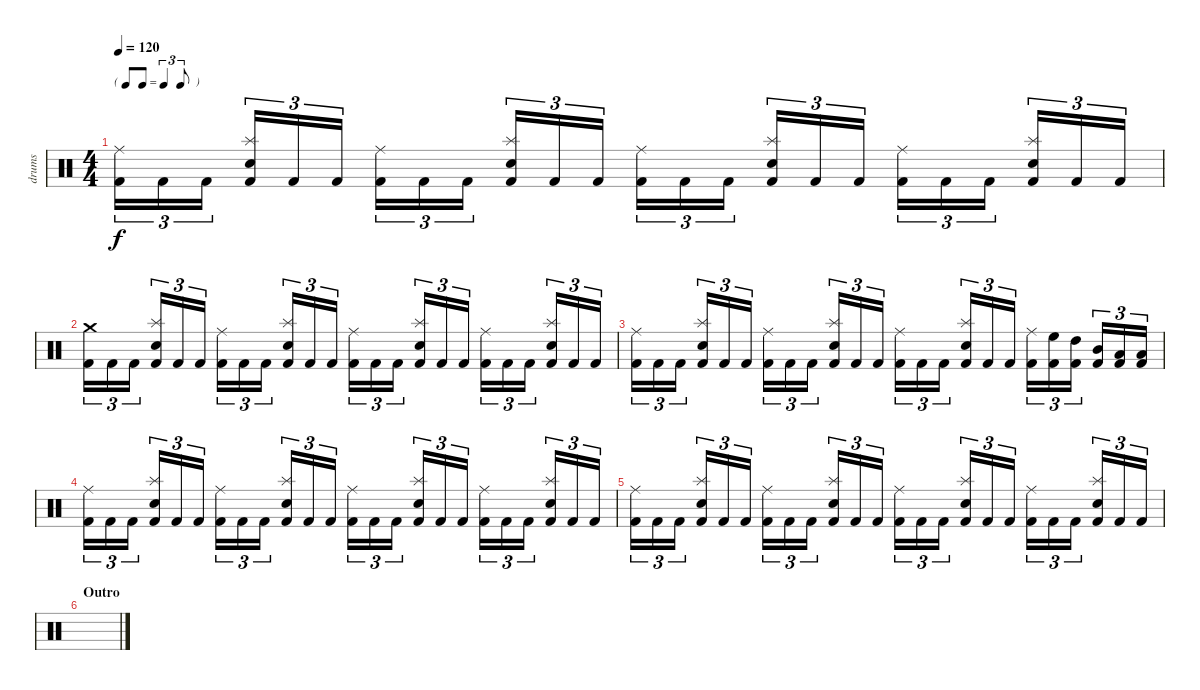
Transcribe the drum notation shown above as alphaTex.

\track ("drums" "drums") {instrument percussion}
\staff {score}
\articulation defaults
\ts (4 4)
\tf triplet8th
\tempo 120
\clef neutral
\ks c
("Ride (middle)" "Kick (hit) 2").16{tu (3 2) dy f} "Kick (hit) 2".16{tu (3 2)} "Kick (hit) 2".16{tu (3 2)} ("Splash (hit)" "Snare (hit) 2" "Kick (hit) 2").16{tu (3 2)} "Kick (hit) 2".16{tu (3 2)} "Kick (hit) 2".16{tu (3 2)} ("Ride (middle)" "Kick (hit) 2").16{tu (3 2)} "Kick (hit) 2".16{tu (3 2)} "Kick (hit) 2".16{tu (3 2)} ("Splash (hit)" "Snare (hit) 2" "Kick (hit) 2").16{tu (3 2)} "Kick (hit) 2".16{tu (3 2)} "Kick (hit) 2".16{tu (3 2)} ("Ride (middle)" "Kick (hit) 2").16{tu (3 2)} "Kick (hit) 2".16{tu (3 2)} "Kick (hit) 2".16{tu (3 2)} ("Splash (hit)" "Snare (hit) 2" "Kick (hit) 2").16{tu (3 2)} "Kick (hit) 2".16{tu (3 2)} "Kick (hit) 2".16{tu (3 2)} ("Ride (middle)" "Kick (hit) 2").16{tu (3 2)} "Kick (hit) 2".16{tu (3 2)} "Kick (hit) 2".16{tu (3 2)} ("Splash (hit)" "Snare (hit) 2" "Kick (hit) 2").16{tu (3 2)} "Kick (hit) 2".16{tu (3 2)} "Kick (hit) 2".16{tu (3 2)} |
("Crash medium (hit)" "Kick (hit) 2").16{tu (3 2)} "Kick (hit) 2".16{tu (3 2)} "Kick (hit) 2".16{tu (3 2)} ("Splash (hit)" "Snare (hit) 2" "Kick (hit) 2").16{tu (3 2)} "Kick (hit) 2".16{tu (3 2)} "Kick (hit) 2".16{tu (3 2)} ("Ride (middle)" "Kick (hit) 2").16{tu (3 2)} "Kick (hit) 2".16{tu (3 2)} "Kick (hit) 2".16{tu (3 2)} ("Splash (hit)" "Snare (hit) 2" "Kick (hit) 2").16{tu (3 2)} "Kick (hit) 2".16{tu (3 2)} "Kick (hit) 2".16{tu (3 2)} ("Ride (middle)" "Kick (hit) 2").16{tu (3 2)} "Kick (hit) 2".16{tu (3 2)} "Kick (hit) 2".16{tu (3 2)} ("Splash (hit)" "Snare (hit) 2" "Kick (hit) 2").16{tu (3 2)} "Kick (hit) 2".16{tu (3 2)} "Kick (hit) 2".16{tu (3 2)} ("Ride (middle)" "Kick (hit) 2").16{tu (3 2)} "Kick (hit) 2".16{tu (3 2)} "Kick (hit) 2".16{tu (3 2)} ("Splash (hit)" "Snare (hit) 2" "Kick (hit) 2").16{tu (3 2)} "Kick (hit) 2".16{tu (3 2)} "Kick (hit) 2".16{tu (3 2)} |
("Ride (middle)" "Kick (hit) 2").16{tu (3 2)} "Kick (hit) 2".16{tu (3 2)} "Kick (hit) 2".16{tu (3 2)} ("Splash (hit)" "Snare (hit) 2" "Kick (hit) 2").16{tu (3 2)} "Kick (hit) 2".16{tu (3 2)} "Kick (hit) 2".16{tu (3 2)} ("Ride (middle)" "Kick (hit) 2").16{tu (3 2)} "Kick (hit) 2".16{tu (3 2)} "Kick (hit) 2".16{tu (3 2)} ("Splash (hit)" "Snare (hit) 2" "Kick (hit) 2").16{tu (3 2)} "Kick (hit) 2".16{tu (3 2)} "Kick (hit) 2".16{tu (3 2)} ("Ride (middle)" "Kick (hit) 2").16{tu (3 2)} "Kick (hit) 2".16{tu (3 2)} "Kick (hit) 2".16{tu (3 2)} ("Splash (hit)" "Snare (hit) 2" "Kick (hit) 2").16{tu (3 2)} "Kick (hit) 2".16{tu (3 2)} "Kick (hit) 2".16{tu (3 2)} ("Ride (middle)" "Kick (hit) 2").16{tu (3 2)} ("High Floor Tom (hit)" "Kick (hit) 2").16{tu (3 2)} ("High Tom (hit)" "Kick (hit) 2").16{tu (3 2)} ("Mid Tom (hit)" "Kick (hit) 2").16{tu (3 2)} ("Low Tom (hit)" "Kick (hit) 2").16{tu (3 2)} ("Low Floor Tom (hit)" "Kick (hit) 2").16{tu (3 2)} |
("Ride (middle)" "Kick (hit) 2").16{tu (3 2)} "Kick (hit) 2".16{tu (3 2)} "Kick (hit) 2".16{tu (3 2)} ("Splash (hit)" "Snare (hit) 2" "Kick (hit) 2").16{tu (3 2)} "Kick (hit) 2".16{tu (3 2)} "Kick (hit) 2".16{tu (3 2)} ("Ride (middle)" "Kick (hit) 2").16{tu (3 2)} "Kick (hit) 2".16{tu (3 2)} "Kick (hit) 2".16{tu (3 2)} ("Splash (hit)" "Snare (hit) 2" "Kick (hit) 2").16{tu (3 2)} "Kick (hit) 2".16{tu (3 2)} "Kick (hit) 2".16{tu (3 2)} ("Ride (middle)" "Kick (hit) 2").16{tu (3 2)} "Kick (hit) 2".16{tu (3 2)} "Kick (hit) 2".16{tu (3 2)} ("Splash (hit)" "Snare (hit) 2" "Kick (hit) 2").16{tu (3 2)} "Kick (hit) 2".16{tu (3 2)} "Kick (hit) 2".16{tu (3 2)} ("Ride (middle)" "Kick (hit) 2").16{tu (3 2)} "Kick (hit) 2".16{tu (3 2)} "Kick (hit) 2".16{tu (3 2)} ("Splash (hit)" "Snare (hit) 2" "Kick (hit) 2").16{tu (3 2)} "Kick (hit) 2".16{tu (3 2)} "Kick (hit) 2".16{tu (3 2)} |
("Ride (middle)" "Kick (hit) 2").16{tu (3 2)} "Kick (hit) 2".16{tu (3 2)} "Kick (hit) 2".16{tu (3 2)} ("Splash (hit)" "Snare (hit) 2" "Kick (hit) 2").16{tu (3 2)} "Kick (hit) 2".16{tu (3 2)} "Kick (hit) 2".16{tu (3 2)} ("Ride (middle)" "Kick (hit) 2").16{tu (3 2)} "Kick (hit) 2".16{tu (3 2)} "Kick (hit) 2".16{tu (3 2)} ("Splash (hit)" "Snare (hit) 2" "Kick (hit) 2").16{tu (3 2)} "Kick (hit) 2".16{tu (3 2)} "Kick (hit) 2".16{tu (3 2)} ("Ride (middle)" "Kick (hit) 2").16{tu (3 2)} "Kick (hit) 2".16{tu (3 2)} "Kick (hit) 2".16{tu (3 2)} ("Splash (hit)" "Snare (hit) 2" "Kick (hit) 2").16{tu (3 2)} "Kick (hit) 2".16{tu (3 2)} "Kick (hit) 2".16{tu (3 2)} ("Ride (middle)" "Kick (hit) 2").16{tu (3 2)} "Kick (hit) 2".16{tu (3 2)} "Kick (hit) 2".16{tu (3 2)} ("Splash (hit)" "Snare (hit) 2" "Kick (hit) 2").16{tu (3 2)} "Kick (hit) 2".16{tu (3 2)} "Kick (hit) 2".16{tu (3 2)} |
\section ("" "Outro")
